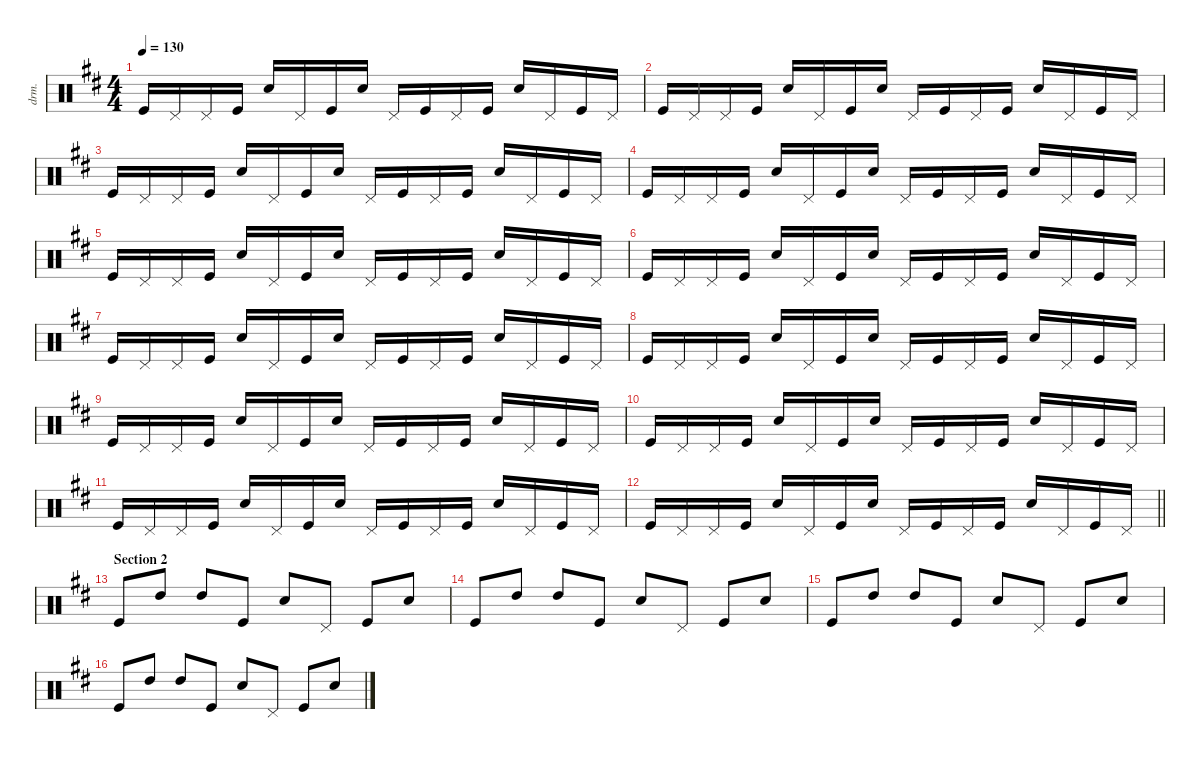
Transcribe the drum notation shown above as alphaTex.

\defaultSystemsLayout 4
\hideDynamics
\bracketExtendMode nobrackets
\otherSystemsTrackNameOrientation horizontal
\track ("Percussion" "drm.") {instrument percussion}
\staff {score}
\articulation defaults
\ts (4 4)
\tempo 130
\clef neutral
\ks d "Kick (hit)"{acc forcenatural}.16{dy f} "Pedal Hi-Hat (hit)"{acc forcenatural}.16 "Pedal Hi-Hat (hit)"{acc forcenatural}.16 "Kick (hit)"{acc forcenatural}.16 "Snare (hit) 2"{acc forcenatural}.16 "Pedal Hi-Hat (hit)"{acc forcenatural}.16 "Kick (hit)"{acc forcenatural}.16 "Snare (hit) 2"{acc forcenatural}.16 "Pedal Hi-Hat (hit)"{acc forcenatural}.16 "Kick (hit)"{acc forcenatural}.16 "Pedal Hi-Hat (hit)"{acc forcenatural}.16 "Kick (hit)"{acc forcenatural}.16 "Snare (hit) 2"{acc forcenatural}.16 "Pedal Hi-Hat (hit)"{acc forcenatural}.16 "Kick (hit)"{acc forcenatural}.16 "Pedal Hi-Hat (hit)"{acc forcenatural}.16
|
"Kick (hit)"{acc forcenatural}.16 "Pedal Hi-Hat (hit)"{acc forcenatural}.16 "Pedal Hi-Hat (hit)"{acc forcenatural}.16 "Kick (hit)"{acc forcenatural}.16 "Snare (hit) 2"{acc forcenatural}.16 "Pedal Hi-Hat (hit)"{acc forcenatural}.16 "Kick (hit)"{acc forcenatural}.16 "Snare (hit) 2"{acc forcenatural}.16 "Pedal Hi-Hat (hit)"{acc forcenatural}.16 "Kick (hit)"{acc forcenatural}.16 "Pedal Hi-Hat (hit)"{acc forcenatural}.16 "Kick (hit)"{acc forcenatural}.16 "Snare (hit) 2"{acc forcenatural}.16 "Pedal Hi-Hat (hit)"{acc forcenatural}.16 "Kick (hit)"{acc forcenatural}.16 "Pedal Hi-Hat (hit)"{acc forcenatural}.16 |
"Kick (hit)"{acc forcenatural}.16 "Pedal Hi-Hat (hit)"{acc forcenatural}.16 "Pedal Hi-Hat (hit)"{acc forcenatural}.16 "Kick (hit)"{acc forcenatural}.16 "Snare (hit) 2"{acc forcenatural}.16 "Pedal Hi-Hat (hit)"{acc forcenatural}.16 "Kick (hit)"{acc forcenatural}.16 "Snare (hit) 2"{acc forcenatural}.16 "Pedal Hi-Hat (hit)"{acc forcenatural}.16 "Kick (hit)"{acc forcenatural}.16 "Pedal Hi-Hat (hit)"{acc forcenatural}.16 "Kick (hit)"{acc forcenatural}.16 "Snare (hit) 2"{acc forcenatural}.16 "Pedal Hi-Hat (hit)"{acc forcenatural}.16 "Kick (hit)"{acc forcenatural}.16 "Pedal Hi-Hat (hit)"{acc forcenatural}.16 |
"Kick (hit)"{acc forcenatural}.16 "Pedal Hi-Hat (hit)"{acc forcenatural}.16 "Pedal Hi-Hat (hit)"{acc forcenatural}.16 "Kick (hit)"{acc forcenatural}.16 "Snare (hit) 2"{acc forcenatural}.16 "Pedal Hi-Hat (hit)"{acc forcenatural}.16 "Kick (hit)"{acc forcenatural}.16 "Snare (hit) 2"{acc forcenatural}.16 "Pedal Hi-Hat (hit)"{acc forcenatural}.16 "Kick (hit)"{acc forcenatural}.16 "Pedal Hi-Hat (hit)"{acc forcenatural}.16 "Kick (hit)"{acc forcenatural}.16 "Snare (hit) 2"{acc forcenatural}.16 "Pedal Hi-Hat (hit)"{acc forcenatural}.16 "Kick (hit)"{acc forcenatural}.16 "Pedal Hi-Hat (hit)"{acc forcenatural}.16 |
"Kick (hit)"{acc forcenatural}.16 "Pedal Hi-Hat (hit)"{acc forcenatural}.16 "Pedal Hi-Hat (hit)"{acc forcenatural}.16 "Kick (hit)"{acc forcenatural}.16 "Snare (hit) 2"{acc forcenatural}.16 "Pedal Hi-Hat (hit)"{acc forcenatural}.16 "Kick (hit)"{acc forcenatural}.16 "Snare (hit) 2"{acc forcenatural}.16 "Pedal Hi-Hat (hit)"{acc forcenatural}.16 "Kick (hit)"{acc forcenatural}.16 "Pedal Hi-Hat (hit)"{acc forcenatural}.16 "Kick (hit)"{acc forcenatural}.16 "Snare (hit) 2"{acc forcenatural}.16 "Pedal Hi-Hat (hit)"{acc forcenatural}.16 "Kick (hit)"{acc forcenatural}.16 "Pedal Hi-Hat (hit)"{acc forcenatural}.16 |
"Kick (hit)"{acc forcenatural}.16 "Pedal Hi-Hat (hit)"{acc forcenatural}.16 "Pedal Hi-Hat (hit)"{acc forcenatural}.16 "Kick (hit)"{acc forcenatural}.16 "Snare (hit) 2"{acc forcenatural}.16 "Pedal Hi-Hat (hit)"{acc forcenatural}.16 "Kick (hit)"{acc forcenatural}.16 "Snare (hit) 2"{acc forcenatural}.16 "Pedal Hi-Hat (hit)"{acc forcenatural}.16 "Kick (hit)"{acc forcenatural}.16 "Pedal Hi-Hat (hit)"{acc forcenatural}.16 "Kick (hit)"{acc forcenatural}.16 "Snare (hit) 2"{acc forcenatural}.16 "Pedal Hi-Hat (hit)"{acc forcenatural}.16 "Kick (hit)"{acc forcenatural}.16 "Pedal Hi-Hat (hit)"{acc forcenatural}.16 |
"Kick (hit)"{acc forcenatural}.16 "Pedal Hi-Hat (hit)"{acc forcenatural}.16 "Pedal Hi-Hat (hit)"{acc forcenatural}.16 "Kick (hit)"{acc forcenatural}.16 "Snare (hit) 2"{acc forcenatural}.16 "Pedal Hi-Hat (hit)"{acc forcenatural}.16 "Kick (hit)"{acc forcenatural}.16 "Snare (hit) 2"{acc forcenatural}.16 "Pedal Hi-Hat (hit)"{acc forcenatural}.16 "Kick (hit)"{acc forcenatural}.16 "Pedal Hi-Hat (hit)"{acc forcenatural}.16 "Kick (hit)"{acc forcenatural}.16 "Snare (hit) 2"{acc forcenatural}.16 "Pedal Hi-Hat (hit)"{acc forcenatural}.16 "Kick (hit)"{acc forcenatural}.16 "Pedal Hi-Hat (hit)"{acc forcenatural}.16 |
"Kick (hit)"{acc forcenatural}.16 "Pedal Hi-Hat (hit)"{acc forcenatural}.16 "Pedal Hi-Hat (hit)"{acc forcenatural}.16 "Kick (hit)"{acc forcenatural}.16 "Snare (hit) 2"{acc forcenatural}.16 "Pedal Hi-Hat (hit)"{acc forcenatural}.16 "Kick (hit)"{acc forcenatural}.16 "Snare (hit) 2"{acc forcenatural}.16 "Pedal Hi-Hat (hit)"{acc forcenatural}.16 "Kick (hit)"{acc forcenatural}.16 "Pedal Hi-Hat (hit)"{acc forcenatural}.16 "Kick (hit)"{acc forcenatural}.16 "Snare (hit) 2"{acc forcenatural}.16 "Pedal Hi-Hat (hit)"{acc forcenatural}.16 "Kick (hit)"{acc forcenatural}.16 "Pedal Hi-Hat (hit)"{acc forcenatural}.16 |
"Kick (hit)"{acc forcenatural}.16 "Pedal Hi-Hat (hit)"{acc forcenatural}.16 "Pedal Hi-Hat (hit)"{acc forcenatural}.16 "Kick (hit)"{acc forcenatural}.16 "Snare (hit) 2"{acc forcenatural}.16 "Pedal Hi-Hat (hit)"{acc forcenatural}.16 "Kick (hit)"{acc forcenatural}.16 "Snare (hit) 2"{acc forcenatural}.16 "Pedal Hi-Hat (hit)"{acc forcenatural}.16 "Kick (hit)"{acc forcenatural}.16 "Pedal Hi-Hat (hit)"{acc forcenatural}.16 "Kick (hit)"{acc forcenatural}.16 "Snare (hit) 2"{acc forcenatural}.16 "Pedal Hi-Hat (hit)"{acc forcenatural}.16 "Kick (hit)"{acc forcenatural}.16 "Pedal Hi-Hat (hit)"{acc forcenatural}.16 |
"Kick (hit)"{acc forcenatural}.16 "Pedal Hi-Hat (hit)"{acc forcenatural}.16 "Pedal Hi-Hat (hit)"{acc forcenatural}.16 "Kick (hit)"{acc forcenatural}.16 "Snare (hit) 2"{acc forcenatural}.16 "Pedal Hi-Hat (hit)"{acc forcenatural}.16 "Kick (hit)"{acc forcenatural}.16 "Snare (hit) 2"{acc forcenatural}.16 "Pedal Hi-Hat (hit)"{acc forcenatural}.16 "Kick (hit)"{acc forcenatural}.16 "Pedal Hi-Hat (hit)"{acc forcenatural}.16 "Kick (hit)"{acc forcenatural}.16 "Snare (hit) 2"{acc forcenatural}.16 "Pedal Hi-Hat (hit)"{acc forcenatural}.16 "Kick (hit)"{acc forcenatural}.16 "Pedal Hi-Hat (hit)"{acc forcenatural}.16 |
"Kick (hit)"{acc forcenatural}.16 "Pedal Hi-Hat (hit)"{acc forcenatural}.16 "Pedal Hi-Hat (hit)"{acc forcenatural}.16 "Kick (hit)"{acc forcenatural}.16 "Snare (hit) 2"{acc forcenatural}.16 "Pedal Hi-Hat (hit)"{acc forcenatural}.16 "Kick (hit)"{acc forcenatural}.16 "Snare (hit) 2"{acc forcenatural}.16 "Pedal Hi-Hat (hit)"{acc forcenatural}.16 "Kick (hit)"{acc forcenatural}.16 "Pedal Hi-Hat (hit)"{acc forcenatural}.16 "Kick (hit)"{acc forcenatural}.16 "Snare (hit) 2"{acc forcenatural}.16 "Pedal Hi-Hat (hit)"{acc forcenatural}.16 "Kick (hit)"{acc forcenatural}.16 "Pedal Hi-Hat (hit)"{acc forcenatural}.16 |
\barLineRight lightlight "Kick (hit)"{acc forcenatural}.16 "Pedal Hi-Hat (hit)"{acc forcenatural}.16 "Pedal Hi-Hat (hit)"{acc forcenatural}.16 "Kick (hit)"{acc forcenatural}.16 "Snare (hit) 2"{acc forcenatural}.16 "Pedal Hi-Hat (hit)"{acc forcenatural}.16 "Kick (hit)"{acc forcenatural}.16 "Snare (hit) 2"{acc forcenatural}.16 "Pedal Hi-Hat (hit)"{acc forcenatural}.16 "Kick (hit)"{acc forcenatural}.16 "Pedal Hi-Hat (hit)"{acc forcenatural}.16 "Kick (hit)"{acc forcenatural}.16 "Snare (hit) 2"{acc forcenatural}.16 "Pedal Hi-Hat (hit)"{acc forcenatural}.16 "Kick (hit)"{acc forcenatural}.16 "Pedal Hi-Hat (hit)"{acc forcenatural}.16
|
\section ("" "Section 2")
"Kick (hit)"{acc forcenatural}.8 "High Tom (hit)"{acc forcenatural}.8 "High Tom (hit)"{acc forcenatural}.8 "Kick (hit)"{acc forcenatural}.8 "Snare (hit) 2"{acc forcenatural}.8 "Pedal Hi-Hat (hit)"{acc forcenatural}.8 "Kick (hit)"{acc forcenatural}.8 "Snare (hit) 2"{acc forcenatural}.8 |
"Kick (hit)"{acc forcenatural}.8 "High Tom (hit)"{acc forcenatural}.8 "High Tom (hit)"{acc forcenatural}.8 "Kick (hit)"{acc forcenatural}.8 "Snare (hit) 2"{acc forcenatural}.8 "Pedal Hi-Hat (hit)"{acc forcenatural}.8 "Kick (hit)"{acc forcenatural}.8 "Snare (hit) 2"{acc forcenatural}.8 |
"Kick (hit)"{acc forcenatural}.8 "High Tom (hit)"{acc forcenatural}.8 "High Tom (hit)"{acc forcenatural}.8 "Kick (hit)"{acc forcenatural}.8 "Snare (hit) 2"{acc forcenatural}.8 "Pedal Hi-Hat (hit)"{acc forcenatural}.8 "Kick (hit)"{acc forcenatural}.8 "Snare (hit) 2"{acc forcenatural}.8 |
"Kick (hit)"{acc forcenatural}.8 "High Tom (hit)"{acc forcenatural}.8 "High Tom (hit)"{acc forcenatural}.8 "Kick (hit)"{acc forcenatural}.8 "Snare (hit) 2"{acc forcenatural}.8 "Pedal Hi-Hat (hit)"{acc forcenatural}.8 "Kick (hit)"{acc forcenatural}.8 "Snare (hit) 2"{acc forcenatural}.8
